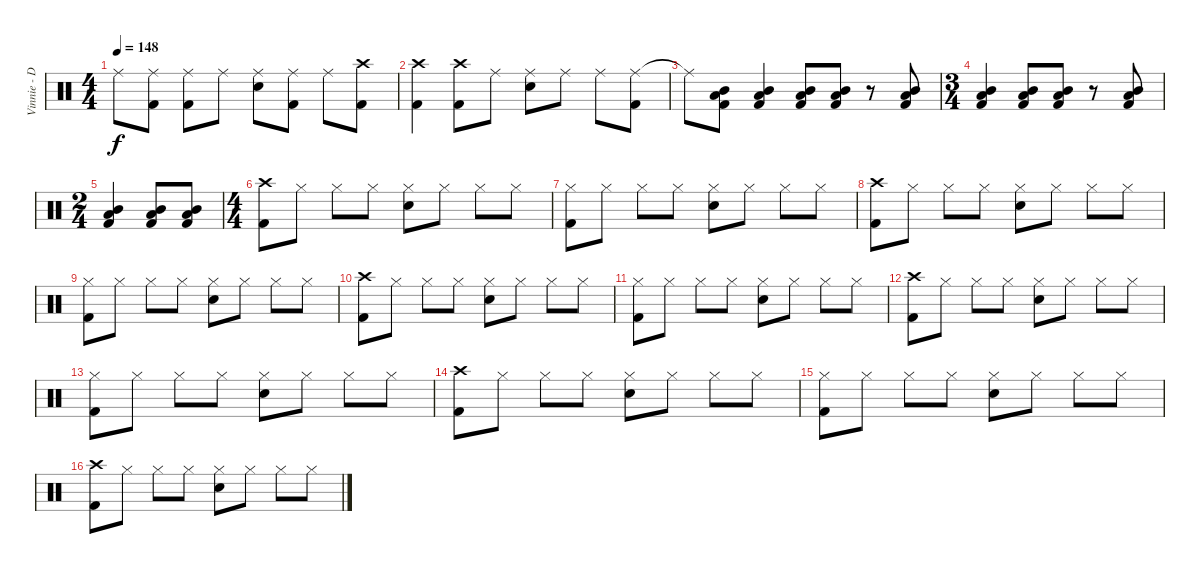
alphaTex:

\track ("Vinnie - Drums" "Vinnie - D") {instrument percussion}
\staff {score}
\articulation defaults
\ts (4 4)
\tempo 148
\clef neutral
\ks c "Ride (middle)".8{dy f}
("Ride (middle)" "Kick (hit) 2").8 ("Ride (middle)" "Kick (hit) 2").8 "Ride (middle)".8 ("Ride (middle)" "Electric Snare (hit)").8 ("Ride (middle)" "Kick (hit) 2").8 "Ride (middle)".8 ("Crash high (hit)" "Kick (hit) 2").8 |
("Crash high (hit)" "Kick (hit) 2").4 ("Crash high (hit)" "Kick (hit) 2").8 "Ride (middle)".8 ("Ride (middle)" "Electric Snare (hit)").8 "Ride (middle)".8 "Ride (middle)".8 ("Ride (middle)" "Kick (hit) 2").8 |
"Ride (middle)"{t}.8 ("Mid Tom (hit)" "Low Tom (hit)" "Kick (hit) 2").8 ("Mid Tom (hit)" "Low Tom (hit)" "Kick (hit) 2").4 ("Mid Tom (hit)" "Low Tom (hit)" "Kick (hit) 2").8 ("Mid Tom (hit)" "Low Tom (hit)" "Kick (hit) 2").8 r.8 ("Mid Tom (hit)" "Low Tom (hit)" "Kick (hit) 2").8 |
\ts (3 4)
("Mid Tom (hit)" "Low Tom (hit)" "Kick (hit) 2").4 ("Mid Tom (hit)" "Low Tom (hit)" "Kick (hit) 2").8 ("Mid Tom (hit)" "Low Tom (hit)" "Kick (hit) 2").8 r.8 ("Mid Tom (hit)" "Low Tom (hit)" "Kick (hit) 2").8 |
\ts (2 4)
("Mid Tom (hit)" "Low Tom (hit)" "Kick (hit) 2").4 ("Mid Tom (hit)" "Low Tom (hit)" "Kick (hit) 2").8 ("Mid Tom (hit)" "Low Tom (hit)" "Kick (hit) 2").8 |
\ts (4 4)
("Crash high (hit)" "Kick (hit) 2").8 "Hi-Hat (closed)".8 "Hi-Hat (closed)".8 "Hi-Hat (closed)".8 ("Hi-Hat (closed)" "Electric Snare (hit)").8 "Hi-Hat (closed)".8 "Hi-Hat (closed)".8 "Hi-Hat (closed)".8 |
("Hi-Hat (closed)" "Kick (hit) 2").8 "Hi-Hat (closed)".8 "Hi-Hat (closed)".8 "Hi-Hat (closed)".8 ("Hi-Hat (closed)" "Electric Snare (hit)").8 "Hi-Hat (closed)".8 "Hi-Hat (closed)".8 "Hi-Hat (closed)".8 |
("Crash high (hit)" "Kick (hit) 2").8 "Hi-Hat (closed)".8 "Hi-Hat (closed)".8 "Hi-Hat (closed)".8 ("Hi-Hat (closed)" "Electric Snare (hit)").8 "Hi-Hat (closed)".8 "Hi-Hat (closed)".8 "Hi-Hat (closed)".8 |
("Hi-Hat (closed)" "Kick (hit) 2").8 "Hi-Hat (closed)".8 "Hi-Hat (closed)".8 "Hi-Hat (closed)".8 ("Hi-Hat (closed)" "Electric Snare (hit)").8 "Hi-Hat (closed)".8 "Hi-Hat (closed)".8 "Hi-Hat (closed)".8 |
("Crash high (hit)" "Kick (hit) 2").8 "Hi-Hat (closed)".8 "Hi-Hat (closed)".8 "Hi-Hat (closed)".8 ("Hi-Hat (closed)" "Electric Snare (hit)").8 "Hi-Hat (closed)".8 "Hi-Hat (closed)".8 "Hi-Hat (closed)".8 |
("Hi-Hat (closed)" "Kick (hit) 2").8 "Hi-Hat (closed)".8 "Hi-Hat (closed)".8 "Hi-Hat (closed)".8 ("Hi-Hat (closed)" "Electric Snare (hit)").8 "Hi-Hat (closed)".8 "Hi-Hat (closed)".8 "Hi-Hat (closed)".8 |
("Crash high (hit)" "Kick (hit) 2").8{volume 12} "Hi-Hat (closed)".8 "Hi-Hat (closed)".8 "Hi-Hat (closed)".8 ("Hi-Hat (closed)" "Electric Snare (hit)").8 "Hi-Hat (closed)".8 "Hi-Hat (closed)".8 "Hi-Hat (closed)".8 |
("Hi-Hat (closed)" "Kick (hit) 2").8 "Hi-Hat (closed)".8 "Hi-Hat (closed)".8 "Hi-Hat (closed)".8 ("Hi-Hat (closed)" "Electric Snare (hit)").8 "Hi-Hat (closed)".8 "Hi-Hat (closed)".8 "Hi-Hat (closed)".8 |
("Crash high (hit)" "Kick (hit) 2").8{volume 8} "Hi-Hat (closed)".8 "Hi-Hat (closed)".8 "Hi-Hat (closed)".8 ("Hi-Hat (closed)" "Electric Snare (hit)").8 "Hi-Hat (closed)".8 "Hi-Hat (closed)".8 "Hi-Hat (closed)".8 |
("Hi-Hat (closed)" "Kick (hit) 2").8 "Hi-Hat (closed)".8 "Hi-Hat (closed)".8 "Hi-Hat (closed)".8 ("Hi-Hat (closed)" "Electric Snare (hit)").8 "Hi-Hat (closed)".8 "Hi-Hat (closed)".8 "Hi-Hat (closed)".8 |
("Crash high (hit)" "Kick (hit) 2").8{volume 4} "Hi-Hat (closed)".8 "Hi-Hat (closed)".8 "Hi-Hat (closed)".8 ("Hi-Hat (closed)" "Electric Snare (hit)").8 "Hi-Hat (closed)".8 "Hi-Hat (closed)".8 "Hi-Hat (closed)".8
